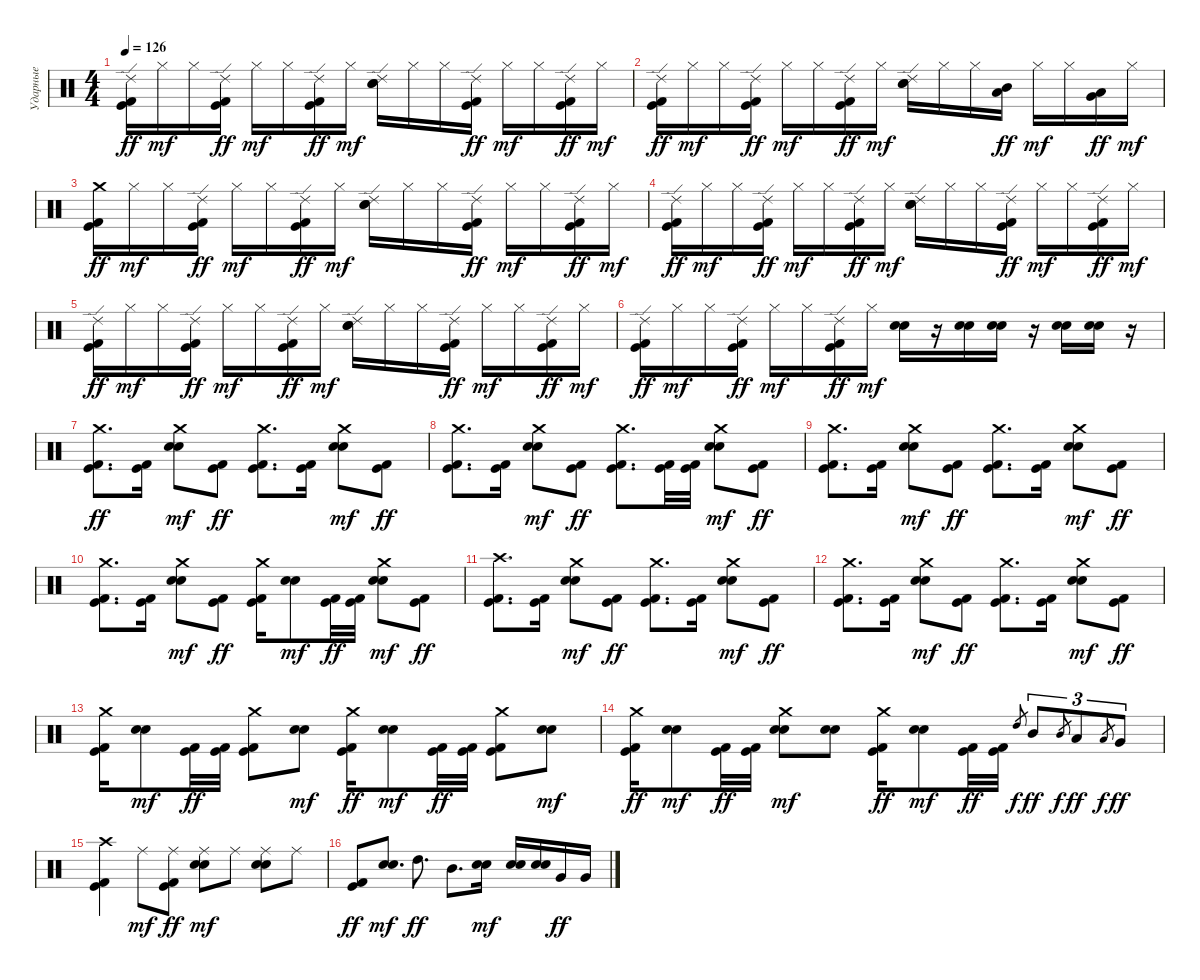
\track ("Ударные" "Ударные") {instrument percussion}
\staff {score}
\articulation defaults
\ts (4 4)
\tempo 126
\clef neutral
\ks c
("Ride (edge) 2" "Kick (hit)" "Kick (hit) 2").16{dy ff} "Hi-Hat (closed)".16{dy mf} "Hi-Hat (closed)".16 ("Ride (edge) 2" "Kick (hit)" "Kick (hit) 2").16{dy ff} "Hi-Hat (closed)".16{dy mf} "Hi-Hat (closed)".16 ("Ride (edge) 2" "Kick (hit)" "Kick (hit) 2").16{dy ff} "Hi-Hat (closed)".16{dy mf} ("Ride (edge) 2" "Snare (hit) 2" "Electric Snare (hit)").16 "Hi-Hat (closed)".16 "Hi-Hat (closed)".16 ("Ride (edge) 2" "Kick (hit) 2" "Kick (hit)").16{dy ff} "Hi-Hat (closed)".16{dy mf} "Hi-Hat (closed)".16 ("Ride (edge) 2" "Kick (hit) 2" "Kick (hit)").16{dy ff} "Hi-Hat (closed)".16{dy mf} |
("Ride (edge) 2" "Kick (hit)" "Kick (hit) 2").16{dy ff} "Hi-Hat (closed)".16{dy mf} "Hi-Hat (closed)".16 ("Ride (edge) 2" "Kick (hit)" "Kick (hit) 2").16{dy ff} "Hi-Hat (closed)".16{dy mf} "Hi-Hat (closed)".16 ("Ride (edge) 2" "Kick (hit)" "Kick (hit) 2").16{dy ff} "Hi-Hat (closed)".16{dy mf} ("Ride (edge) 2" "Snare (hit) 2" "Electric Snare (hit)").16 "Hi-Hat (closed)".16 "Hi-Hat (closed)".16 ("Mid Tom (hit)" "Low Tom (hit)").16{dy ff} "Hi-Hat (closed)".16{dy mf} "Hi-Hat (closed)".16 ("Low Tom (hit)" "Very Low Tom (hit)").16{dy ff} "Hi-Hat (closed)".16{dy mf} |
("Crash medium (hit)" "Kick (hit)" "Kick (hit) 2").16{dy ff} "Hi-Hat (closed)".16{dy mf} "Hi-Hat (closed)".16 ("Ride (edge) 2" "Kick (hit)" "Kick (hit) 2").16{dy ff} "Hi-Hat (closed)".16{dy mf} "Hi-Hat (closed)".16 ("Ride (edge) 2" "Kick (hit)" "Kick (hit) 2").16{dy ff} "Hi-Hat (closed)".16{dy mf} ("Ride (edge) 2" "Snare (hit) 2" "Electric Snare (hit)").16 "Hi-Hat (closed)".16 "Hi-Hat (closed)".16 ("Ride (edge) 2" "Kick (hit) 2" "Kick (hit)").16{dy ff} "Hi-Hat (closed)".16{dy mf} "Hi-Hat (closed)".16 ("Ride (edge) 2" "Kick (hit) 2" "Kick (hit)").16{dy ff} "Hi-Hat (closed)".16{dy mf} |
("Ride (edge) 2" "Kick (hit)" "Kick (hit) 2").16{dy ff} "Hi-Hat (closed)".16{dy mf} "Hi-Hat (closed)".16 ("Ride (edge) 2" "Kick (hit)" "Kick (hit) 2").16{dy ff} "Hi-Hat (closed)".16{dy mf} "Hi-Hat (closed)".16 ("Ride (edge) 2" "Kick (hit)" "Kick (hit) 2").16{dy ff} "Hi-Hat (closed)".16{dy mf} ("Ride (edge) 2" "Snare (hit) 2" "Electric Snare (hit)").16 "Hi-Hat (closed)".16 "Hi-Hat (closed)".16 ("Ride (edge) 2" "Kick (hit) 2" "Kick (hit)").16{dy ff} "Hi-Hat (closed)".16{dy mf} "Hi-Hat (closed)".16 ("Ride (edge) 2" "Kick (hit) 2" "Kick (hit)").16{dy ff} "Hi-Hat (closed)".16{dy mf} |
("Ride (edge) 2" "Kick (hit)" "Kick (hit) 2").16{dy ff} "Hi-Hat (closed)".16{dy mf} "Hi-Hat (closed)".16 ("Ride (edge) 2" "Kick (hit)" "Kick (hit) 2").16{dy ff} "Hi-Hat (closed)".16{dy mf} "Hi-Hat (closed)".16 ("Ride (edge) 2" "Kick (hit)" "Kick (hit) 2").16{dy ff} "Hi-Hat (closed)".16{dy mf} ("Ride (edge) 2" "Snare (hit) 2" "Electric Snare (hit)").16 "Hi-Hat (closed)".16 "Hi-Hat (closed)".16 ("Ride (edge) 2" "Kick (hit) 2" "Kick (hit)").16{dy ff} "Hi-Hat (closed)".16{dy mf} "Hi-Hat (closed)".16 ("Ride (edge) 2" "Kick (hit) 2" "Kick (hit)").16{dy ff} "Hi-Hat (closed)".16{dy mf} |
("Ride (edge) 2" "Kick (hit)" "Kick (hit) 2").16{dy ff} "Hi-Hat (closed)".16{dy mf} "Hi-Hat (closed)".16 ("Ride (edge) 2" "Kick (hit)" "Kick (hit) 2").16{dy ff} "Hi-Hat (closed)".16{dy mf} "Hi-Hat (closed)".16 ("Ride (edge) 2" "Kick (hit)" "Kick (hit) 2").16{dy ff} "Hi-Hat (closed)".16{dy mf} ("Snare (hit) 2" "Electric Snare (hit)").16 r.16 ("Snare (hit) 2" "Electric Snare (hit)").16 ("Snare (hit) 2" "Electric Snare (hit)").16 r.16 ("Snare (hit) 2" "Electric Snare (hit)").16 ("Snare (hit) 2" "Electric Snare (hit)").16 r.16 |
("Crash medium (hit)" "Kick (hit)" "Kick (hit) 2").8{d dy ff} ("Kick (hit)" "Kick (hit) 2").16 ("Crash medium (hit)" "Snare (hit) 2" "Electric Snare (hit)").8{dy mf} ("Kick (hit)" "Kick (hit) 2").8{dy ff} ("Crash medium (hit)" "Kick (hit)" "Kick (hit) 2").8{d} ("Kick (hit)" "Kick (hit) 2").16 ("Crash medium (hit)" "Snare (hit) 2" "Electric Snare (hit)").8{dy mf} ("Kick (hit)" "Kick (hit) 2").8{dy ff} |
("Crash medium (hit)" "Kick (hit)" "Kick (hit) 2").8{d} ("Kick (hit)" "Kick (hit) 2").16 ("Crash medium (hit)" "Snare (hit) 2" "Electric Snare (hit)").8{dy mf} ("Kick (hit)" "Kick (hit) 2").8{dy ff} ("Crash medium (hit)" "Kick (hit)" "Kick (hit) 2").8{d} ("Kick (hit)" "Kick (hit) 2").32 ("Kick (hit)" "Kick (hit) 2").32 ("Crash medium (hit)" "Snare (hit) 2" "Electric Snare (hit)").8{dy mf} ("Kick (hit)" "Kick (hit) 2").8{dy ff} |
("Crash medium (hit)" "Kick (hit)" "Kick (hit) 2").8{d} ("Kick (hit)" "Kick (hit) 2").16 ("Crash medium (hit)" "Snare (hit) 2" "Electric Snare (hit)").8{dy mf} ("Kick (hit)" "Kick (hit) 2").8{dy ff} ("Crash medium (hit)" "Kick (hit)" "Kick (hit) 2").8{d} ("Kick (hit)" "Kick (hit) 2").16 ("Crash medium (hit)" "Snare (hit) 2" "Electric Snare (hit)").8{dy mf} ("Kick (hit)" "Kick (hit) 2").8{dy ff} |
("Crash medium (hit)" "Kick (hit)" "Kick (hit) 2").8{d} ("Kick (hit)" "Kick (hit) 2").16 ("Crash medium (hit)" "Snare (hit) 2" "Electric Snare (hit)").8{dy mf} ("Kick (hit)" "Kick (hit) 2").8{dy ff} ("Crash medium (hit)" "Kick (hit)" "Kick (hit) 2").16 ("Snare (hit) 2" "Electric Snare (hit)").8{dy mf} ("Kick (hit)" "Kick (hit) 2").32{dy ff} ("Kick (hit)" "Kick (hit) 2").32 ("Crash medium (hit)" "Snare (hit) 2" "Electric Snare (hit)").8{dy mf} ("Kick (hit)" "Kick (hit) 2").8{dy ff} |
("Crash high (hit)" "Kick (hit)" "Kick (hit) 2").8{d} ("Kick (hit)" "Kick (hit) 2").16 ("Crash medium (hit)" "Snare (hit) 2" "Electric Snare (hit)").8{dy mf} ("Kick (hit)" "Kick (hit) 2").8{dy ff} ("Crash medium (hit)" "Kick (hit)" "Kick (hit) 2").8{d} ("Kick (hit)" "Kick (hit) 2").16 ("Crash medium (hit)" "Snare (hit) 2" "Electric Snare (hit)").8{dy mf} ("Kick (hit)" "Kick (hit) 2").8{dy ff} |
("Crash medium (hit)" "Kick (hit)" "Kick (hit) 2").8{d} ("Kick (hit)" "Kick (hit) 2").16 ("Crash medium (hit)" "Snare (hit) 2" "Electric Snare (hit)").8{dy mf} ("Kick (hit)" "Kick (hit) 2").8{dy ff} ("Crash medium (hit)" "Kick (hit)" "Kick (hit) 2").8{d} ("Kick (hit)" "Kick (hit) 2").16 ("Crash medium (hit)" "Snare (hit) 2" "Electric Snare (hit)").8{dy mf} ("Kick (hit)" "Kick (hit) 2").8{dy ff} |
("Crash medium (hit)" "Kick (hit)" "Kick (hit) 2").16 ("Snare (hit) 2" "Electric Snare (hit)").8{dy mf} ("Kick (hit)" "Kick (hit) 2").32{dy ff} ("Kick (hit)" "Kick (hit) 2").32 ("Crash medium (hit)" "Kick (hit)" "Kick (hit) 2").8 ("Snare (hit) 2" "Electric Snare (hit)").8{dy mf} ("Crash medium (hit)" "Kick (hit)" "Kick (hit) 2").16{dy ff} ("Snare (hit) 2" "Electric Snare (hit)").8{dy mf} ("Kick (hit)" "Kick (hit) 2").32{dy ff} ("Kick (hit)" "Kick (hit) 2").32 ("Crash medium (hit)" "Kick (hit)" "Kick (hit) 2").8 ("Snare (hit) 2" "Electric Snare (hit)").8{dy mf} |
("Crash medium (hit)" "Kick (hit)" "Kick (hit) 2").16{dy ff} ("Snare (hit) 2" "Electric Snare (hit)").8{dy mf} ("Kick (hit)" "Kick (hit) 2").32{dy ff} ("Kick (hit)" "Kick (hit) 2").32 ("Crash medium (hit)" "Snare (hit) 2" "Electric Snare (hit)").8{dy mf} ("Snare (hit) 2" "Electric Snare (hit)").8 ("Crash medium (hit)" "Kick (hit)" "Kick (hit) 2").16{dy ff} ("Snare (hit) 2" "Electric Snare (hit)").8{dy mf} ("Kick (hit)" "Kick (hit) 2").32{dy ff} ("Kick (hit)" "Kick (hit) 2").32 "High Tom (hit)".8{gr dy f} "Mid Tom (hit)".8{tu (3 2) dy ff} "Mid Tom (hit)".8{gr dy f} "Low Tom (hit)".8{tu (3 2) dy ff} "Low Tom (hit)".8{gr dy f} "Very Low Tom (hit)".8{tu (3 2) dy ff} |
("Crash high (hit)" "Kick (hit)" "Kick (hit) 2").4 "Ride (middle)".8{dy mf} ("Ride (middle)" "Kick (hit)" "Kick (hit) 2").8{dy ff} ("Ride (middle)" "Snare (hit) 2" "Electric Snare (hit)").8{dy mf} "Ride (middle)".8 ("Ride (middle)" "Snare (hit) 2" "Electric Snare (hit)").8 "Ride (middle)".8 |
("Kick (hit)" "Kick (hit) 2").8{dy ff} ("Snare (hit) 2" "Electric Snare (hit)").8{d dy mf} "High Tom (hit)".8{d dy ff} "Mid Tom (hit)".8{d} ("Snare (hit) 2" "Electric Snare (hit)").16{dy mf} ("Snare (hit) 2" "Electric Snare (hit)").16 ("Snare (hit) 2" "Electric Snare (hit)").16 "Very Low Tom (hit)".16{dy ff} "Very Low Tom (hit)".16
